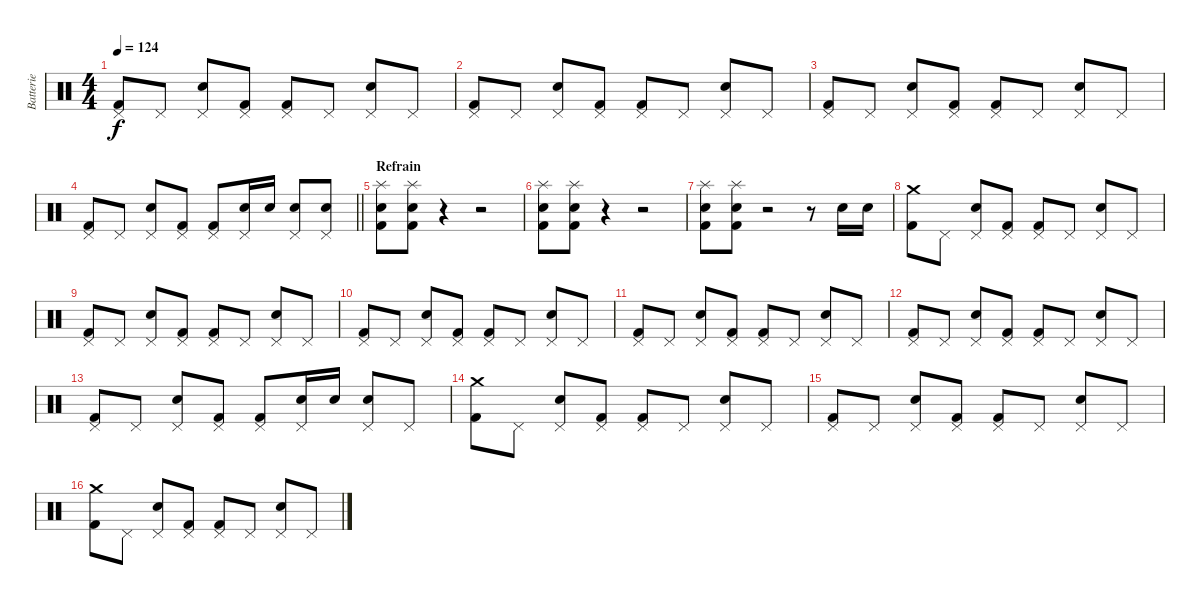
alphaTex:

\track ("Batterie" "Batterie") {instrument percussion}
\staff {score}
\articulation defaults
\ts (4 4)
\tempo 124
\clef neutral
\ks c
("Pedal Hi-Hat (hit)" "Kick (hit) 2").8{dy f} "Pedal Hi-Hat (hit)".8 ("Pedal Hi-Hat (hit)" "Electric Snare (hit)").8 ("Pedal Hi-Hat (hit)" "Kick (hit) 2").8 ("Pedal Hi-Hat (hit)" "Kick (hit) 2").8 "Pedal Hi-Hat (hit)".8 ("Pedal Hi-Hat (hit)" "Electric Snare (hit)").8 "Pedal Hi-Hat (hit)".8 |
("Pedal Hi-Hat (hit)" "Kick (hit) 2").8 "Pedal Hi-Hat (hit)".8 ("Pedal Hi-Hat (hit)" "Electric Snare (hit)").8 ("Pedal Hi-Hat (hit)" "Kick (hit) 2").8 ("Pedal Hi-Hat (hit)" "Kick (hit) 2").8 "Pedal Hi-Hat (hit)".8 ("Pedal Hi-Hat (hit)" "Electric Snare (hit)").8 "Pedal Hi-Hat (hit)".8 |
("Pedal Hi-Hat (hit)" "Kick (hit) 2").8 "Pedal Hi-Hat (hit)".8 ("Pedal Hi-Hat (hit)" "Electric Snare (hit)").8 ("Pedal Hi-Hat (hit)" "Kick (hit) 2").8 ("Pedal Hi-Hat (hit)" "Kick (hit) 2").8 "Pedal Hi-Hat (hit)".8 ("Pedal Hi-Hat (hit)" "Electric Snare (hit)").8 "Pedal Hi-Hat (hit)".8 |
\barLineRight lightlight
("Pedal Hi-Hat (hit)" "Kick (hit) 2").8 "Pedal Hi-Hat (hit)".8 ("Pedal Hi-Hat (hit)" "Electric Snare (hit)").8 ("Pedal Hi-Hat (hit)" "Kick (hit) 2").8 ("Pedal Hi-Hat (hit)" "Kick (hit) 2").8 ("Pedal Hi-Hat (hit)" "Electric Snare (hit)").16 "Electric Snare (hit)".16 ("Pedal Hi-Hat (hit)" "Electric Snare (hit)").8 ("Pedal Hi-Hat (hit)" "Electric Snare (hit)").8 |
\section ("" "Refrain")
("Splash (hit)" "Electric Snare (hit)" "Kick (hit) 2").8 ("Splash (hit)" "Electric Snare (hit)" "Kick (hit) 2").8 r.4 r.2 |
("Splash (hit)" "Electric Snare (hit)" "Kick (hit) 2").8 ("Splash (hit)" "Electric Snare (hit)" "Kick (hit) 2").8 r.4 r.2 |
("Splash (hit)" "Electric Snare (hit)" "Kick (hit) 2").8 ("Splash (hit)" "Electric Snare (hit)" "Kick (hit) 2").8 r.2 r.8 "Electric Snare (hit)".16 "Electric Snare (hit)".16 |
("Crash medium (hit)" "Kick (hit) 2").8 "Pedal Hi-Hat (hit)".8 ("Pedal Hi-Hat (hit)" "Electric Snare (hit)").8 ("Pedal Hi-Hat (hit)" "Kick (hit) 2").8 ("Pedal Hi-Hat (hit)" "Kick (hit) 2").8 "Pedal Hi-Hat (hit)".8 ("Pedal Hi-Hat (hit)" "Electric Snare (hit)").8 "Pedal Hi-Hat (hit)".8 |
("Pedal Hi-Hat (hit)" "Kick (hit) 2").8 "Pedal Hi-Hat (hit)".8 ("Pedal Hi-Hat (hit)" "Electric Snare (hit)").8 ("Pedal Hi-Hat (hit)" "Kick (hit) 2").8 ("Pedal Hi-Hat (hit)" "Kick (hit) 2").8 "Pedal Hi-Hat (hit)".8 ("Pedal Hi-Hat (hit)" "Electric Snare (hit)").8 "Pedal Hi-Hat (hit)".8 |
("Pedal Hi-Hat (hit)" "Kick (hit) 2").8 "Pedal Hi-Hat (hit)".8 ("Pedal Hi-Hat (hit)" "Electric Snare (hit)").8 ("Pedal Hi-Hat (hit)" "Kick (hit) 2").8 ("Pedal Hi-Hat (hit)" "Kick (hit) 2").8 "Pedal Hi-Hat (hit)".8 ("Pedal Hi-Hat (hit)" "Electric Snare (hit)").8 "Pedal Hi-Hat (hit)".8 |
("Pedal Hi-Hat (hit)" "Kick (hit) 2").8 "Pedal Hi-Hat (hit)".8 ("Pedal Hi-Hat (hit)" "Electric Snare (hit)").8 ("Pedal Hi-Hat (hit)" "Kick (hit) 2").8 ("Pedal Hi-Hat (hit)" "Kick (hit) 2").8 "Pedal Hi-Hat (hit)".8 ("Pedal Hi-Hat (hit)" "Electric Snare (hit)").8 "Pedal Hi-Hat (hit)".8 |
("Pedal Hi-Hat (hit)" "Kick (hit) 2").8 "Pedal Hi-Hat (hit)".8 ("Pedal Hi-Hat (hit)" "Electric Snare (hit)").8 ("Pedal Hi-Hat (hit)" "Kick (hit) 2").8 ("Pedal Hi-Hat (hit)" "Kick (hit) 2").8 "Pedal Hi-Hat (hit)".8 ("Pedal Hi-Hat (hit)" "Electric Snare (hit)").8 "Pedal Hi-Hat (hit)".8 |
("Pedal Hi-Hat (hit)" "Kick (hit) 2").8 "Pedal Hi-Hat (hit)".8 ("Pedal Hi-Hat (hit)" "Electric Snare (hit)").8 ("Pedal Hi-Hat (hit)" "Kick (hit) 2").8 ("Pedal Hi-Hat (hit)" "Kick (hit) 2").8 ("Pedal Hi-Hat (hit)" "Electric Snare (hit)").16 "Electric Snare (hit)".16 ("Pedal Hi-Hat (hit)" "Electric Snare (hit)").8 "Pedal Hi-Hat (hit)".8 |
("Crash medium (hit)" "Kick (hit) 2").8 "Pedal Hi-Hat (hit)".8 ("Pedal Hi-Hat (hit)" "Electric Snare (hit)").8 ("Pedal Hi-Hat (hit)" "Kick (hit) 2").8 ("Pedal Hi-Hat (hit)" "Kick (hit) 2").8 "Pedal Hi-Hat (hit)".8 ("Pedal Hi-Hat (hit)" "Electric Snare (hit)").8 "Pedal Hi-Hat (hit)".8 |
("Pedal Hi-Hat (hit)" "Kick (hit) 2").8 "Pedal Hi-Hat (hit)".8 ("Pedal Hi-Hat (hit)" "Electric Snare (hit)").8 ("Pedal Hi-Hat (hit)" "Kick (hit) 2").8 ("Pedal Hi-Hat (hit)" "Kick (hit) 2").8 "Pedal Hi-Hat (hit)".8 ("Pedal Hi-Hat (hit)" "Electric Snare (hit)").8 "Pedal Hi-Hat (hit)".8 |
("Crash medium (hit)" "Kick (hit) 2").8 "Pedal Hi-Hat (hit)".8 ("Pedal Hi-Hat (hit)" "Electric Snare (hit)").8 ("Pedal Hi-Hat (hit)" "Kick (hit) 2").8 ("Pedal Hi-Hat (hit)" "Kick (hit) 2").8 "Pedal Hi-Hat (hit)".8 ("Pedal Hi-Hat (hit)" "Electric Snare (hit)").8 "Pedal Hi-Hat (hit)".8
